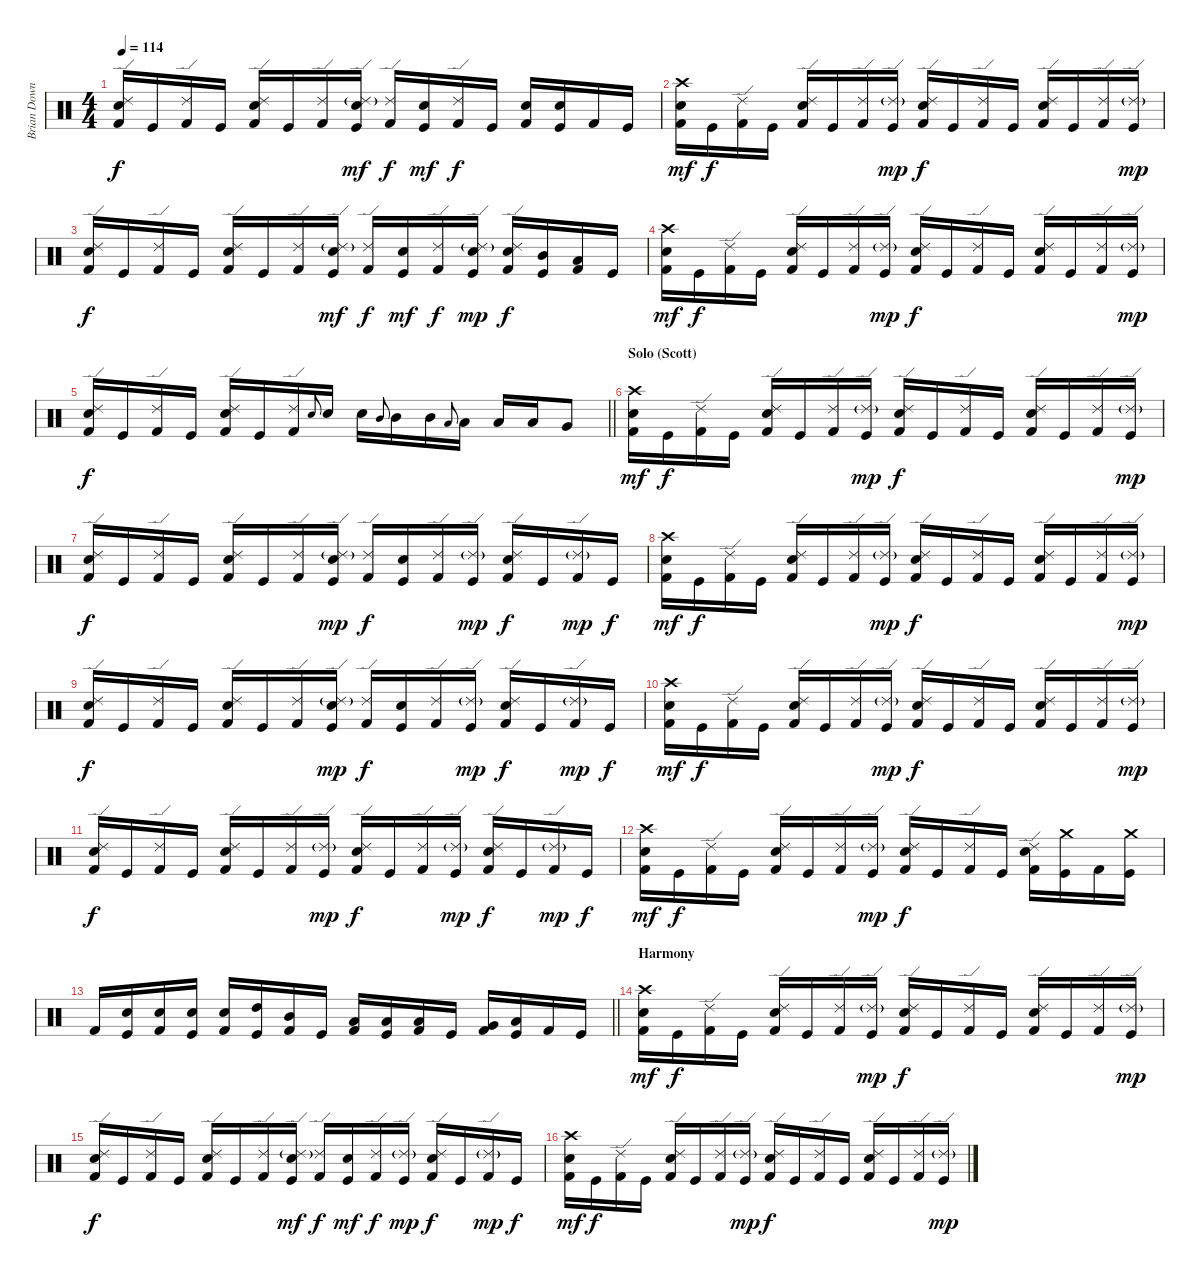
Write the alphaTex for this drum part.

\track ("Brian Downey" "Brian Down") {instrument percussion}
\staff {score}
\articulation defaults
\ts (4 4)
\tempo 114
\clef neutral
\ks c
("Ride (edge) 2" "Electric Snare (hit)" "Kick (hit) 2").16{dy f} "Kick (hit)".16 ("Ride (edge) 2" "Kick (hit) 2").16 "Kick (hit)".16 ("Ride (edge) 2" "Electric Snare (hit)" "Kick (hit) 2").16 "Kick (hit)".16 ("Ride (edge) 2" "Kick (hit) 2").16 ("Ride (edge) 2"{g} "Electric Snare (hit)" "Kick (hit)").16{dy mf} ("Ride (edge) 2" "Kick (hit) 2").16{dy f} ("Electric Snare (hit)" "Kick (hit)").16{dy mf} ("Ride (edge) 2" "Kick (hit) 2").16{dy f} "Kick (hit)".16 ("Electric Snare (hit)" "Kick (hit) 2").16 ("Electric Snare (hit)" "Kick (hit)").16 "Kick (hit) 2".16 "Kick (hit)".16 |
("Crash high (hit)" "Electric Snare (hit)" "Kick (hit) 2").16{dy mf} "Kick (hit)".16{dy f} ("Ride (edge) 2" "Kick (hit) 2").16 "Kick (hit)".16 ("Ride (edge) 2" "Electric Snare (hit)" "Kick (hit) 2").16 "Kick (hit)".16 ("Ride (edge) 2" "Kick (hit) 2").16 ("Ride (edge) 2"{g} "Kick (hit)").16{dy mp} ("Ride (edge) 2" "Electric Snare (hit)" "Kick (hit) 2").16{dy f} "Kick (hit)".16 ("Ride (edge) 2" "Kick (hit) 2").16 "Kick (hit)".16 ("Ride (edge) 2" "Electric Snare (hit)" "Kick (hit) 2").16 "Kick (hit)".16 ("Ride (edge) 2" "Kick (hit) 2").16 ("Ride (edge) 2"{g} "Kick (hit)").16{dy mp} |
("Ride (edge) 2" "Electric Snare (hit)" "Kick (hit) 2").16{dy f} "Kick (hit)".16 ("Ride (edge) 2" "Kick (hit) 2").16 "Kick (hit)".16 ("Ride (edge) 2" "Electric Snare (hit)" "Kick (hit) 2").16 "Kick (hit)".16 ("Ride (edge) 2" "Kick (hit) 2").16 ("Ride (edge) 2"{g} "Electric Snare (hit)" "Kick (hit)").16{dy mf} ("Ride (edge) 2" "Kick (hit) 2").16{dy f} ("Electric Snare (hit)" "Kick (hit)").16{dy mf} ("Ride (edge) 2" "Kick (hit) 2").16{dy f} ("Ride (edge) 2"{g} "Electric Snare (hit)" "Kick (hit)").16{dy mp} ("Ride (edge) 2" "Electric Snare (hit)" "Kick (hit) 2").16{dy f} ("Mid Tom (hit)" "Kick (hit)").16 ("Low Tom (hit)" "Kick (hit) 2").16 "Kick (hit)".16 |
("Crash high (hit)" "Electric Snare (hit)" "Kick (hit) 2").16{dy mf} "Kick (hit)".16{dy f} ("Ride (edge) 2" "Kick (hit) 2").16 "Kick (hit)".16 ("Ride (edge) 2" "Electric Snare (hit)" "Kick (hit) 2").16 "Kick (hit)".16 ("Ride (edge) 2" "Kick (hit) 2").16 ("Ride (edge) 2"{g} "Kick (hit)").16{dy mp} ("Ride (edge) 2" "Electric Snare (hit)" "Kick (hit) 2").16{dy f} "Kick (hit)".16 ("Ride (edge) 2" "Kick (hit) 2").16 "Kick (hit)".16 ("Ride (edge) 2" "Electric Snare (hit)" "Kick (hit) 2").16 "Kick (hit)".16 ("Ride (edge) 2" "Kick (hit) 2").16 ("Ride (edge) 2"{g} "Kick (hit)").16{dy mp} |
\barLineRight lightlight
("Ride (edge) 2" "Electric Snare (hit)" "Kick (hit) 2").16{dy f} "Kick (hit)".16 ("Ride (edge) 2" "Kick (hit) 2").16 "Kick (hit)".16 ("Ride (edge) 2" "Electric Snare (hit)" "Kick (hit) 2").16 "Kick (hit)".16 ("Ride (edge) 2" "Kick (hit) 2").16 "Electric Snare (hit)".8{gr onbeat} "Electric Snare (hit)".16 "Electric Snare (hit)".16 "Mid Tom (hit)".8{gr onbeat} "Mid Tom (hit)".16 "Mid Tom (hit)".16 "Low Tom (hit)".8{gr onbeat} "Low Tom (hit)".16 "Low Tom (hit)".16 "Low Tom (hit)".16 "Very Low Tom (hit)".8 |
\section ("" "Solo (Scott)")
("Crash high (hit)" "Electric Snare (hit)" "Kick (hit) 2").16{dy mf} "Kick (hit)".16{dy f} ("Ride (edge) 2" "Kick (hit) 2").16 "Kick (hit)".16 ("Ride (edge) 2" "Electric Snare (hit)" "Kick (hit) 2").16 "Kick (hit)".16 ("Ride (edge) 2" "Kick (hit) 2").16 ("Ride (edge) 2"{g} "Kick (hit)").16{dy mp} ("Ride (edge) 2" "Electric Snare (hit)" "Kick (hit) 2").16{dy f} "Kick (hit)".16 ("Ride (edge) 2" "Kick (hit) 2").16 "Kick (hit)".16 ("Ride (edge) 2" "Electric Snare (hit)" "Kick (hit) 2").16 "Kick (hit)".16 ("Ride (edge) 2" "Kick (hit) 2").16 ("Ride (edge) 2"{g} "Kick (hit)").16{dy mp} |
("Ride (edge) 2" "Electric Snare (hit)" "Kick (hit) 2").16{dy f} "Kick (hit)".16 ("Ride (edge) 2" "Kick (hit) 2").16 "Kick (hit)".16 ("Ride (edge) 2" "Electric Snare (hit)" "Kick (hit) 2").16 "Kick (hit)".16 ("Ride (edge) 2" "Kick (hit) 2").16 ("Ride (edge) 2"{g} "Electric Snare (hit)" "Kick (hit)").16{dy mp} ("Ride (edge) 2" "Kick (hit) 2").16{dy f} ("Electric Snare (hit)" "Kick (hit)").16 ("Ride (edge) 2" "Kick (hit) 2").16 ("Ride (edge) 2"{g} "Kick (hit)").16{dy mp} ("Ride (edge) 2" "Electric Snare (hit)" "Kick (hit) 2").16{dy f} "Kick (hit)".16 ("Ride (edge) 2"{g} "Kick (hit) 2").16{dy mp} "Kick (hit)".16{dy f} |
("Crash high (hit)" "Electric Snare (hit)" "Kick (hit) 2").16{dy mf} "Kick (hit)".16{dy f} ("Ride (edge) 2" "Kick (hit) 2").16 "Kick (hit)".16 ("Ride (edge) 2" "Electric Snare (hit)" "Kick (hit) 2").16 "Kick (hit)".16 ("Ride (edge) 2" "Kick (hit) 2").16 ("Ride (edge) 2"{g} "Kick (hit)").16{dy mp} ("Ride (edge) 2" "Electric Snare (hit)" "Kick (hit) 2").16{dy f} "Kick (hit)".16 ("Ride (edge) 2" "Kick (hit) 2").16 "Kick (hit)".16 ("Ride (edge) 2" "Electric Snare (hit)" "Kick (hit) 2").16 "Kick (hit)".16 ("Ride (edge) 2" "Kick (hit) 2").16 ("Ride (edge) 2"{g} "Kick (hit)").16{dy mp} |
("Ride (edge) 2" "Electric Snare (hit)" "Kick (hit) 2").16{dy f} "Kick (hit)".16 ("Ride (edge) 2" "Kick (hit) 2").16 "Kick (hit)".16 ("Ride (edge) 2" "Electric Snare (hit)" "Kick (hit) 2").16 "Kick (hit)".16 ("Ride (edge) 2" "Kick (hit) 2").16 ("Ride (edge) 2"{g} "Electric Snare (hit)" "Kick (hit)").16{dy mp} ("Ride (edge) 2" "Kick (hit) 2").16{dy f} ("Electric Snare (hit)" "Kick (hit)").16 ("Ride (edge) 2" "Kick (hit) 2").16 ("Ride (edge) 2"{g} "Kick (hit)").16{dy mp} ("Ride (edge) 2" "Electric Snare (hit)" "Kick (hit) 2").16{dy f} "Kick (hit)".16 ("Ride (edge) 2"{g} "Kick (hit) 2").16{dy mp} "Kick (hit)".16{dy f} |
("Crash high (hit)" "Electric Snare (hit)" "Kick (hit) 2").16{dy mf} "Kick (hit)".16{dy f} ("Ride (edge) 2" "Kick (hit) 2").16 "Kick (hit)".16 ("Ride (edge) 2" "Electric Snare (hit)" "Kick (hit) 2").16 "Kick (hit)".16 ("Ride (edge) 2" "Kick (hit) 2").16 ("Ride (edge) 2"{g} "Kick (hit)").16{dy mp} ("Ride (edge) 2" "Electric Snare (hit)" "Kick (hit) 2").16{dy f} "Kick (hit)".16 ("Ride (edge) 2" "Kick (hit) 2").16 "Kick (hit)".16 ("Ride (edge) 2" "Electric Snare (hit)" "Kick (hit) 2").16 "Kick (hit)".16 ("Ride (edge) 2" "Kick (hit) 2").16 ("Ride (edge) 2"{g} "Kick (hit)").16{dy mp} |
("Ride (edge) 2" "Electric Snare (hit)" "Kick (hit) 2").16{dy f} "Kick (hit)".16 ("Ride (edge) 2" "Kick (hit) 2").16 "Kick (hit)".16 ("Ride (edge) 2" "Electric Snare (hit)" "Kick (hit) 2").16 "Kick (hit)".16 ("Ride (edge) 2" "Kick (hit) 2").16 ("Ride (edge) 2"{g} "Kick (hit)").16{dy mp} ("Ride (edge) 2" "Electric Snare (hit)" "Kick (hit) 2").16{dy f} "Kick (hit)".16 ("Ride (edge) 2" "Kick (hit) 2").16 ("Ride (edge) 2"{g} "Kick (hit)").16{dy mp} ("Ride (edge) 2" "Electric Snare (hit)" "Kick (hit) 2").16{dy f} "Kick (hit)".16 ("Ride (edge) 2"{g} "Kick (hit) 2").16{dy mp} "Kick (hit)".16{dy f} |
("Crash high (hit)" "Electric Snare (hit)" "Kick (hit) 2").16{dy mf} "Kick (hit)".16{dy f} ("Ride (edge) 2" "Kick (hit) 2").16 "Kick (hit)".16 ("Ride (edge) 2" "Electric Snare (hit)" "Kick (hit) 2").16 "Kick (hit)".16 ("Ride (edge) 2" "Kick (hit) 2").16 ("Ride (edge) 2"{g} "Kick (hit)").16{dy mp} ("Ride (edge) 2" "Electric Snare (hit)" "Kick (hit) 2").16{dy f} "Kick (hit)".16 ("Ride (edge) 2" "Kick (hit) 2").16 "Kick (hit)".16 ("Ride (edge) 2" "Electric Snare (hit)" "Kick (hit) 2").16 ("Crash medium (hit)" "Kick (hit)").16 "Kick (hit) 2".16 ("Crash medium (hit)" "Kick (hit)").16 |
\barLineRight lightlight "Kick (hit) 2".16
("Electric Snare (hit)" "Kick (hit)").16 ("Electric Snare (hit)" "Kick (hit) 2").16 ("Electric Snare (hit)" "Kick (hit)").16 ("Electric Snare (hit)" "Kick (hit) 2").16 ("High Tom (hit)" "Kick (hit)").16 ("Mid Tom (hit)" "Kick (hit) 2").16 "Kick (hit)".16 ("Low Tom (hit)" "Kick (hit) 2").16 ("Low Tom (hit)" "Kick (hit)").16 ("Low Tom (hit)" "Kick (hit) 2").16 "Kick (hit)".16 ("Very Low Tom (hit)" "Kick (hit) 2").16 ("Low Floor Tom (hit)" "Kick (hit)").16 "Kick (hit) 2".16 "Kick (hit)".16 |
\section ("" "Harmony")
("Crash high (hit)" "Electric Snare (hit)" "Kick (hit) 2").16{dy mf} "Kick (hit)".16{dy f} ("Ride (edge) 2" "Kick (hit) 2").16 "Kick (hit)".16 ("Ride (edge) 2" "Electric Snare (hit)" "Kick (hit) 2").16 "Kick (hit)".16 ("Ride (edge) 2" "Kick (hit) 2").16 ("Ride (edge) 2"{g} "Kick (hit)").16{dy mp} ("Ride (edge) 2" "Electric Snare (hit)" "Kick (hit) 2").16{dy f} "Kick (hit)".16 ("Ride (edge) 2" "Kick (hit) 2").16 "Kick (hit)".16 ("Ride (edge) 2" "Electric Snare (hit)" "Kick (hit) 2").16 "Kick (hit)".16 ("Ride (edge) 2" "Kick (hit) 2").16 ("Ride (edge) 2"{g} "Kick (hit)").16{dy mp} |
("Ride (edge) 2" "Electric Snare (hit)" "Kick (hit) 2").16{dy f} "Kick (hit)".16 ("Ride (edge) 2" "Kick (hit) 2").16 "Kick (hit)".16 ("Ride (edge) 2" "Electric Snare (hit)" "Kick (hit) 2").16 "Kick (hit)".16 ("Ride (edge) 2" "Kick (hit) 2").16 ("Ride (edge) 2"{g} "Electric Snare (hit)" "Kick (hit)").16{dy mf} ("Ride (edge) 2" "Kick (hit) 2").16{dy f} ("Electric Snare (hit)" "Kick (hit)").16{dy mf} ("Ride (edge) 2" "Kick (hit) 2").16{dy f} ("Ride (edge) 2"{g} "Kick (hit)").16{dy mp} ("Ride (edge) 2" "Electric Snare (hit)" "Kick (hit) 2").16{dy f} "Kick (hit)".16 ("Ride (edge) 2"{g} "Kick (hit) 2").16{dy mp} "Kick (hit)".16{dy f} |
("Crash high (hit)" "Electric Snare (hit)" "Kick (hit) 2").16{dy mf} "Kick (hit)".16{dy f} ("Ride (edge) 2" "Kick (hit) 2").16 "Kick (hit)".16 ("Ride (edge) 2" "Electric Snare (hit)" "Kick (hit) 2").16 "Kick (hit)".16 ("Ride (edge) 2" "Kick (hit) 2").16 ("Ride (edge) 2"{g} "Kick (hit)").16{dy mp} ("Ride (edge) 2" "Electric Snare (hit)" "Kick (hit) 2").16{dy f} "Kick (hit)".16 ("Ride (edge) 2" "Kick (hit) 2").16 "Kick (hit)".16 ("Ride (edge) 2" "Electric Snare (hit)" "Kick (hit) 2").16 "Kick (hit)".16 ("Ride (edge) 2" "Kick (hit) 2").16 ("Ride (edge) 2"{g} "Kick (hit)").16{dy mp}
